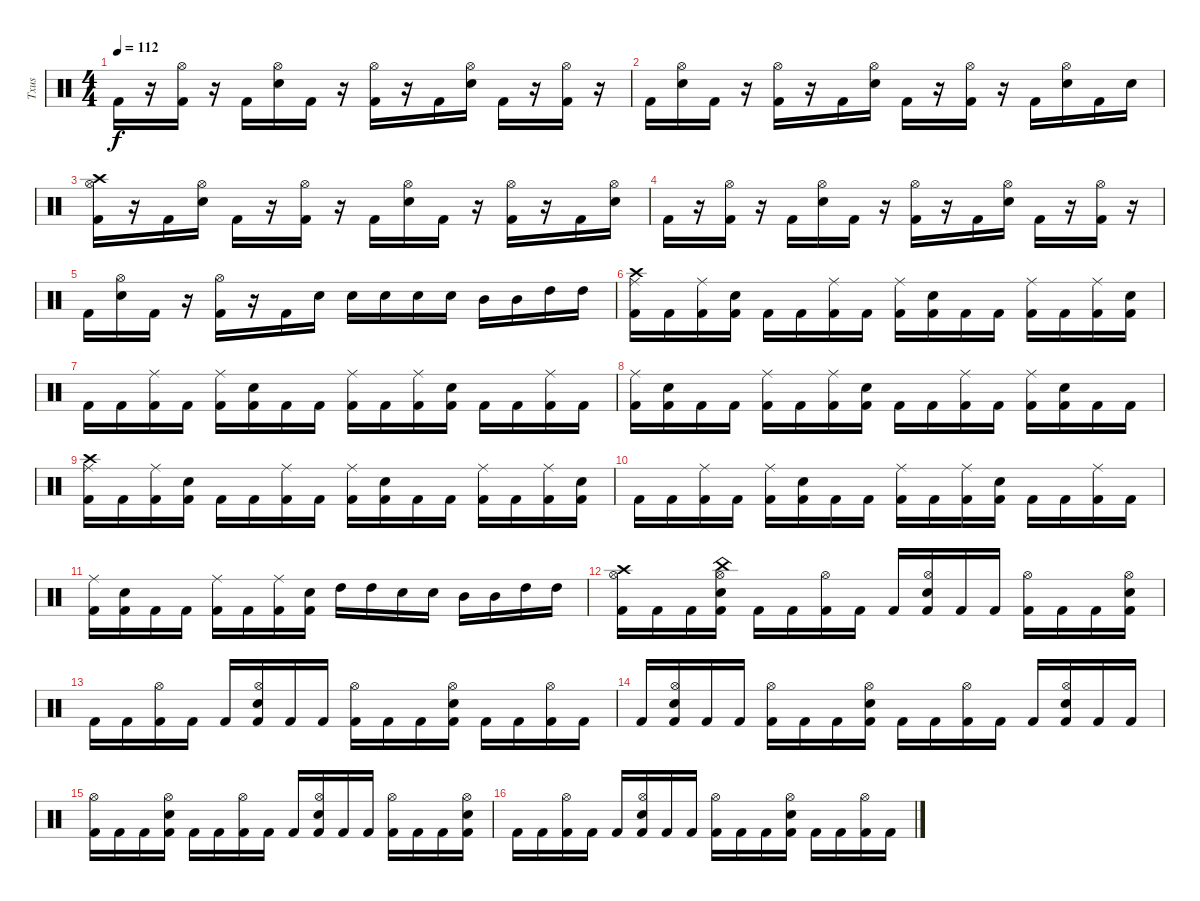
\track ("Txus" "Txus") {instrument percussion}
\staff {score}
\articulation defaults
\ts (4 4)
\tempo 112
\clef neutral
\ks c "Kick (hit) 2".16{dy f}
r.16 ("Kick (hit) 2" "Hi-Hat (open)").16 r.16 "Kick (hit) 2".16 ("Hi-Hat (open)" "Electric Snare (hit)").16 "Kick (hit) 2".16 r.16 ("Kick (hit) 2" "Hi-Hat (open)").16 r.16 "Kick (hit) 2".16 ("Hi-Hat (open)" "Electric Snare (hit)").16 "Kick (hit) 2".16 r.16 ("Kick (hit) 2" "Hi-Hat (open)").16 r.16 |
"Kick (hit) 2".16 ("Hi-Hat (open)" "Electric Snare (hit)").16 "Kick (hit) 2".16 r.16 ("Kick (hit) 2" "Hi-Hat (open)").16 r.16 "Kick (hit) 2".16 ("Hi-Hat (open)" "Electric Snare (hit)").16 "Kick (hit) 2".16 r.16 ("Kick (hit) 2" "Hi-Hat (open)").16 r.16 "Kick (hit) 2".16 ("Hi-Hat (open)" "Electric Snare (hit)").16 "Kick (hit) 2".16 "Electric Snare (hit)".16 |
("Kick (hit) 2" "Hi-Hat (open)" "Crash high (hit)").16 r.16 "Kick (hit) 2".16 ("Hi-Hat (open)" "Electric Snare (hit)").16 "Kick (hit) 2".16 r.16 ("Kick (hit) 2" "Hi-Hat (open)").16 r.16 "Kick (hit) 2".16 ("Hi-Hat (open)" "Electric Snare (hit)").16 "Kick (hit) 2".16 r.16 ("Kick (hit) 2" "Hi-Hat (open)").16 r.16 "Kick (hit) 2".16 ("Hi-Hat (open)" "Electric Snare (hit)").16 |
"Kick (hit) 2".16 r.16 ("Kick (hit) 2" "Hi-Hat (open)").16 r.16 "Kick (hit) 2".16 ("Hi-Hat (open)" "Electric Snare (hit)").16 "Kick (hit) 2".16 r.16 ("Kick (hit) 2" "Hi-Hat (open)").16 r.16 "Kick (hit) 2".16 ("Hi-Hat (open)" "Electric Snare (hit)").16 "Kick (hit) 2".16 r.16 ("Kick (hit) 2" "Hi-Hat (open)").16 r.16 |
"Kick (hit) 2".16 ("Hi-Hat (open)" "Electric Snare (hit)").16 "Kick (hit) 2".16 r.16 ("Kick (hit) 2" "Hi-Hat (open)").16 r.16 "Kick (hit) 2".16 "Electric Snare (hit)".16 "Electric Snare (hit)".16 "Electric Snare (hit)".16 "Electric Snare (hit)".16 "Electric Snare (hit)".16 "Mid Tom (hit)".16 "Mid Tom (hit)".16 "High Tom (hit)".16 "High Tom (hit)".16 |
("Kick (hit) 2" "Ride (middle)" "Crash high (hit)").16 "Kick (hit) 2".16 ("Kick (hit) 2" "Ride (middle)").16 ("Kick (hit) 2" "Electric Snare (hit)").16 "Kick (hit) 2".16 "Kick (hit) 2".16 ("Kick (hit) 2" "Ride (middle)").16 "Kick (hit) 2".16 ("Kick (hit) 2" "Ride (middle)").16 ("Kick (hit) 2" "Electric Snare (hit)").16 "Kick (hit) 2".16 "Kick (hit) 2".16 ("Kick (hit) 2" "Ride (middle)").16 "Kick (hit) 2".16 ("Kick (hit) 2" "Ride (middle)").16 ("Kick (hit) 2" "Electric Snare (hit)").16 |
"Kick (hit) 2".16 "Kick (hit) 2".16 ("Kick (hit) 2" "Ride (middle)").16 "Kick (hit) 2".16 ("Kick (hit) 2" "Ride (middle)").16 ("Kick (hit) 2" "Electric Snare (hit)").16 "Kick (hit) 2".16 "Kick (hit) 2".16 ("Kick (hit) 2" "Ride (middle)").16 "Kick (hit) 2".16 ("Kick (hit) 2" "Ride (middle)").16 ("Kick (hit) 2" "Electric Snare (hit)").16 "Kick (hit) 2".16 "Kick (hit) 2".16 ("Kick (hit) 2" "Ride (middle)").16 "Kick (hit) 2".16 |
("Kick (hit) 2" "Ride (middle)").16 ("Kick (hit) 2" "Electric Snare (hit)").16 "Kick (hit) 2".16 "Kick (hit) 2".16 ("Kick (hit) 2" "Ride (middle)").16 "Kick (hit) 2".16 ("Kick (hit) 2" "Ride (middle)").16 ("Kick (hit) 2" "Electric Snare (hit)").16 "Kick (hit) 2".16 "Kick (hit) 2".16 ("Kick (hit) 2" "Ride (middle)").16 "Kick (hit) 2".16 ("Kick (hit) 2" "Ride (middle)").16 ("Kick (hit) 2" "Electric Snare (hit)").16 "Kick (hit) 2".16 "Kick (hit) 2".16 |
("Kick (hit) 2" "Ride (middle)" "Crash high (hit)").16 "Kick (hit) 2".16 ("Kick (hit) 2" "Ride (middle)").16 ("Kick (hit) 2" "Electric Snare (hit)").16 "Kick (hit) 2".16 "Kick (hit) 2".16 ("Kick (hit) 2" "Ride (middle)").16 "Kick (hit) 2".16 ("Kick (hit) 2" "Ride (middle)").16 ("Kick (hit) 2" "Electric Snare (hit)").16 "Kick (hit) 2".16 "Kick (hit) 2".16 ("Kick (hit) 2" "Ride (middle)").16 "Kick (hit) 2".16 ("Kick (hit) 2" "Ride (middle)").16 ("Kick (hit) 2" "Electric Snare (hit)").16 |
"Kick (hit) 2".16 "Kick (hit) 2".16 ("Kick (hit) 2" "Ride (middle)").16 "Kick (hit) 2".16 ("Kick (hit) 2" "Ride (middle)").16 ("Kick (hit) 2" "Electric Snare (hit)").16 "Kick (hit) 2".16 "Kick (hit) 2".16 ("Kick (hit) 2" "Ride (middle)").16 "Kick (hit) 2".16 ("Kick (hit) 2" "Ride (middle)").16 ("Kick (hit) 2" "Electric Snare (hit)").16 "Kick (hit) 2".16 "Kick (hit) 2".16 ("Kick (hit) 2" "Ride (middle)").16 "Kick (hit) 2".16 |
("Kick (hit) 2" "Ride (middle)").16 ("Kick (hit) 2" "Electric Snare (hit)").16 "Kick (hit) 2".16 "Kick (hit) 2".16 ("Kick (hit) 2" "Ride (middle)").16 "Kick (hit) 2".16 ("Kick (hit) 2" "Ride (middle)").16 ("Kick (hit) 2" "Electric Snare (hit)").16 "High Tom (hit)".16 "High Tom (hit)".16 "Electric Snare (hit)".16 "Electric Snare (hit)".16 "Mid Tom (hit)".16 "Mid Tom (hit)".16 "High Tom (hit)".16 "High Tom (hit)".16 |
("Kick (hit) 2" "Hi-Hat (open)" "Crash high (hit)").16 "Kick (hit) 2".16 "Kick (hit) 2".16 ("Kick (hit) 2" "Hi-Hat (open)" "Electric Snare (hit)" "China (hit)").16 "Kick (hit) 2".16 "Kick (hit) 2".16 ("Kick (hit) 2" "Hi-Hat (open)").16 "Kick (hit) 2".16 "Kick (hit) 2".16 ("Kick (hit) 2" "Hi-Hat (open)" "Electric Snare (hit)").16 "Kick (hit) 2".16 "Kick (hit) 2".16 ("Kick (hit) 2" "Hi-Hat (open)").16 "Kick (hit) 2".16 "Kick (hit) 2".16 ("Kick (hit) 2" "Hi-Hat (open)" "Electric Snare (hit)").16 |
"Kick (hit) 2".16 "Kick (hit) 2".16 ("Kick (hit) 2" "Hi-Hat (open)").16 "Kick (hit) 2".16 "Kick (hit) 2".16 ("Kick (hit) 2" "Hi-Hat (open)" "Electric Snare (hit)").16 "Kick (hit) 2".16 "Kick (hit) 2".16 ("Kick (hit) 2" "Hi-Hat (open)").16 "Kick (hit) 2".16 "Kick (hit) 2".16 ("Kick (hit) 2" "Hi-Hat (open)" "Electric Snare (hit)").16 "Kick (hit) 2".16 "Kick (hit) 2".16 ("Kick (hit) 2" "Hi-Hat (open)").16 "Kick (hit) 2".16 |
"Kick (hit) 2".16 ("Kick (hit) 2" "Hi-Hat (open)" "Electric Snare (hit)").16 "Kick (hit) 2".16 "Kick (hit) 2".16 ("Kick (hit) 2" "Hi-Hat (open)").16 "Kick (hit) 2".16 "Kick (hit) 2".16 ("Kick (hit) 2" "Hi-Hat (open)" "Electric Snare (hit)").16 "Kick (hit) 2".16 "Kick (hit) 2".16 ("Kick (hit) 2" "Hi-Hat (open)").16 "Kick (hit) 2".16 "Kick (hit) 2".16 ("Kick (hit) 2" "Hi-Hat (open)" "Electric Snare (hit)").16 "Kick (hit) 2".16 "Kick (hit) 2".16 |
("Kick (hit) 2" "Hi-Hat (open)").16 "Kick (hit) 2".16 "Kick (hit) 2".16 ("Kick (hit) 2" "Hi-Hat (open)" "Electric Snare (hit)").16 "Kick (hit) 2".16 "Kick (hit) 2".16 ("Kick (hit) 2" "Hi-Hat (open)").16 "Kick (hit) 2".16 "Kick (hit) 2".16 ("Kick (hit) 2" "Hi-Hat (open)" "Electric Snare (hit)").16 "Kick (hit) 2".16 "Kick (hit) 2".16 ("Kick (hit) 2" "Hi-Hat (open)").16 "Kick (hit) 2".16 "Kick (hit) 2".16 ("Kick (hit) 2" "Hi-Hat (open)" "Electric Snare (hit)").16 |
"Kick (hit) 2".16 "Kick (hit) 2".16 ("Kick (hit) 2" "Hi-Hat (open)").16 "Kick (hit) 2".16 "Kick (hit) 2".16 ("Kick (hit) 2" "Hi-Hat (open)" "Electric Snare (hit)").16 "Kick (hit) 2".16 "Kick (hit) 2".16 ("Kick (hit) 2" "Hi-Hat (open)").16 "Kick (hit) 2".16 "Kick (hit) 2".16 ("Kick (hit) 2" "Hi-Hat (open)" "Electric Snare (hit)").16 "Kick (hit) 2".16 "Kick (hit) 2".16 ("Kick (hit) 2" "Hi-Hat (open)").16 "Kick (hit) 2".16
